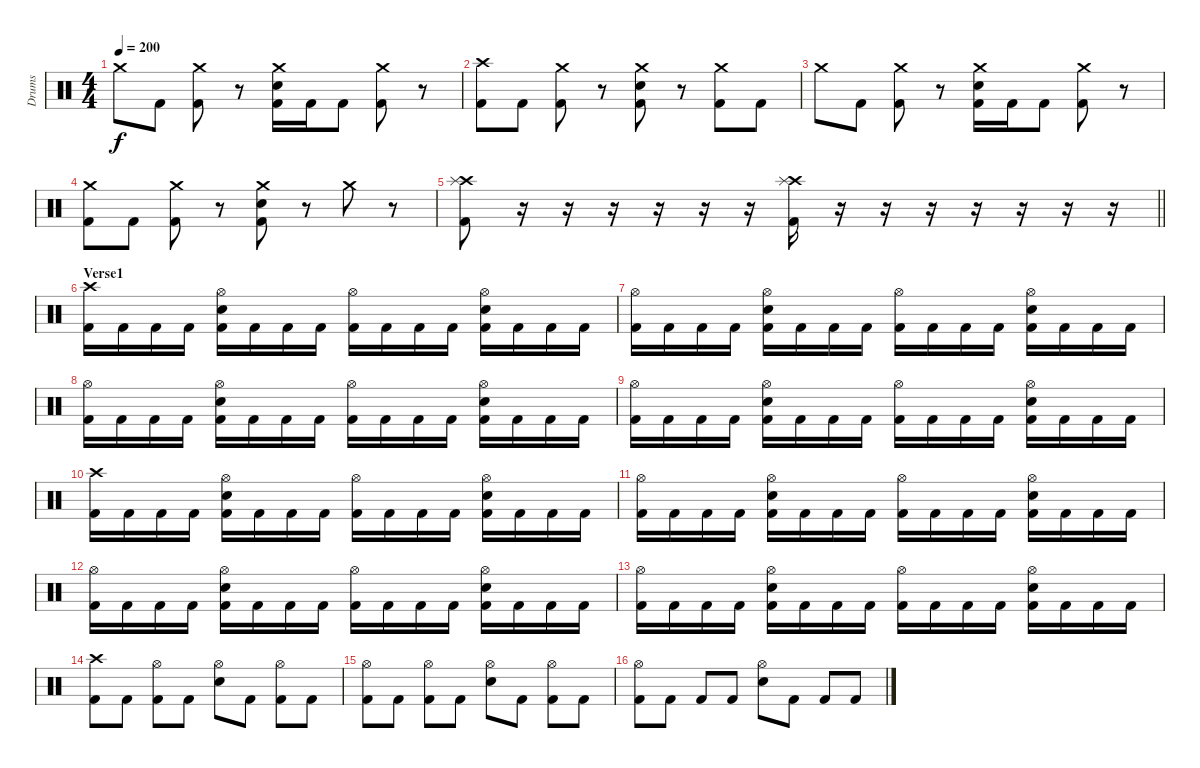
\track ("Drums" "Drums") {instrument percussion}
\staff {score}
\articulation defaults
\ts (4 4)
\tempo 200
\clef neutral
\ks c "Crash medium (hit)".8{dy f} "Kick (hit) 2".8
("Crash medium (hit)" "Kick (hit) 2").8 r.8 ("Crash medium (hit)" "Electric Snare (hit)" "Kick (hit) 2").16 "Kick (hit) 2".16 "Kick (hit) 2".8 ("Crash medium (hit)" "Kick (hit) 2").8 r.8 |
("Crash high (hit)" "Kick (hit) 2").8 "Kick (hit) 2".8 ("Crash medium (hit)" "Kick (hit) 2").8 r.8 ("Crash medium (hit)" "Electric Snare (hit)" "Kick (hit) 2").8 r.8 ("Crash medium (hit)" "Kick (hit) 2").8 "Kick (hit) 2".8 |
"Crash medium (hit)".8 "Kick (hit) 2".8 ("Crash medium (hit)" "Kick (hit) 2").8 r.8 ("Crash medium (hit)" "Electric Snare (hit)" "Kick (hit) 2").16 "Kick (hit) 2".16 "Kick (hit) 2".8 ("Crash medium (hit)" "Kick (hit) 2").8 r.8 |
("Crash medium (hit)" "Kick (hit) 2").8 "Kick (hit) 2".8 ("Crash medium (hit)" "Kick (hit) 2").8 r.8 ("Crash medium (hit)" "Electric Snare (hit)" "Kick (hit) 2").8 r.8 "Crash medium (hit)".8 r.8 |
\barLineRight lightlight
("Crash high (hit)" "Splash (hit)" "Kick (hit) 2").8 r.16 r.16 r.16 r.16 r.16 r.16 ("Crash high (hit)" "Splash (hit)" "Kick (hit) 2").16 r.16 r.16 r.16 r.16 r.16 r.16 r.16 |
\section ("" "Verse1")
("Crash high (hit)" "Kick (hit) 2").16 "Kick (hit) 2".16 "Kick (hit) 2".16 "Kick (hit) 2".16 ("Hi-Hat (open)" "Electric Snare (hit)" "Kick (hit) 2").16 "Kick (hit) 2".16 "Kick (hit) 2".16 "Kick (hit) 2".16 ("Hi-Hat (open)" "Kick (hit) 2").16 "Kick (hit) 2".16 "Kick (hit) 2".16 "Kick (hit) 2".16 ("Hi-Hat (open)" "Electric Snare (hit)" "Kick (hit) 2").16 "Kick (hit) 2".16 "Kick (hit) 2".16 "Kick (hit) 2".16 |
("Hi-Hat (open)" "Kick (hit) 2").16 "Kick (hit) 2".16 "Kick (hit) 2".16 "Kick (hit) 2".16 ("Hi-Hat (open)" "Electric Snare (hit)" "Kick (hit) 2").16 "Kick (hit) 2".16 "Kick (hit) 2".16 "Kick (hit) 2".16 ("Hi-Hat (open)" "Kick (hit) 2").16 "Kick (hit) 2".16 "Kick (hit) 2".16 "Kick (hit) 2".16 ("Hi-Hat (open)" "Electric Snare (hit)" "Kick (hit) 2").16 "Kick (hit) 2".16 "Kick (hit) 2".16 "Kick (hit) 2".16 |
("Hi-Hat (open)" "Kick (hit) 2").16 "Kick (hit) 2".16 "Kick (hit) 2".16 "Kick (hit) 2".16 ("Hi-Hat (open)" "Electric Snare (hit)" "Kick (hit) 2").16 "Kick (hit) 2".16 "Kick (hit) 2".16 "Kick (hit) 2".16 ("Hi-Hat (open)" "Kick (hit) 2").16 "Kick (hit) 2".16 "Kick (hit) 2".16 "Kick (hit) 2".16 ("Hi-Hat (open)" "Electric Snare (hit)" "Kick (hit) 2").16 "Kick (hit) 2".16 "Kick (hit) 2".16 "Kick (hit) 2".16 |
("Hi-Hat (open)" "Kick (hit) 2").16 "Kick (hit) 2".16 "Kick (hit) 2".16 "Kick (hit) 2".16 ("Hi-Hat (open)" "Electric Snare (hit)" "Kick (hit) 2").16 "Kick (hit) 2".16 "Kick (hit) 2".16 "Kick (hit) 2".16 ("Hi-Hat (open)" "Kick (hit) 2").16 "Kick (hit) 2".16 "Kick (hit) 2".16 "Kick (hit) 2".16 ("Hi-Hat (open)" "Electric Snare (hit)" "Kick (hit) 2").16 "Kick (hit) 2".16 "Kick (hit) 2".16 "Kick (hit) 2".16 |
("Crash high (hit)" "Kick (hit) 2").16 "Kick (hit) 2".16 "Kick (hit) 2".16 "Kick (hit) 2".16 ("Hi-Hat (open)" "Electric Snare (hit)" "Kick (hit) 2").16 "Kick (hit) 2".16 "Kick (hit) 2".16 "Kick (hit) 2".16 ("Hi-Hat (open)" "Kick (hit) 2").16 "Kick (hit) 2".16 "Kick (hit) 2".16 "Kick (hit) 2".16 ("Hi-Hat (open)" "Electric Snare (hit)" "Kick (hit) 2").16 "Kick (hit) 2".16 "Kick (hit) 2".16 "Kick (hit) 2".16 |
("Hi-Hat (open)" "Kick (hit) 2").16 "Kick (hit) 2".16 "Kick (hit) 2".16 "Kick (hit) 2".16 ("Hi-Hat (open)" "Electric Snare (hit)" "Kick (hit) 2").16 "Kick (hit) 2".16 "Kick (hit) 2".16 "Kick (hit) 2".16 ("Hi-Hat (open)" "Kick (hit) 2").16 "Kick (hit) 2".16 "Kick (hit) 2".16 "Kick (hit) 2".16 ("Hi-Hat (open)" "Electric Snare (hit)" "Kick (hit) 2").16 "Kick (hit) 2".16 "Kick (hit) 2".16 "Kick (hit) 2".16 |
("Hi-Hat (open)" "Kick (hit) 2").16 "Kick (hit) 2".16 "Kick (hit) 2".16 "Kick (hit) 2".16 ("Hi-Hat (open)" "Electric Snare (hit)" "Kick (hit) 2").16 "Kick (hit) 2".16 "Kick (hit) 2".16 "Kick (hit) 2".16 ("Hi-Hat (open)" "Kick (hit) 2").16 "Kick (hit) 2".16 "Kick (hit) 2".16 "Kick (hit) 2".16 ("Hi-Hat (open)" "Electric Snare (hit)" "Kick (hit) 2").16 "Kick (hit) 2".16 "Kick (hit) 2".16 "Kick (hit) 2".16 |
("Hi-Hat (open)" "Kick (hit) 2").16 "Kick (hit) 2".16 "Kick (hit) 2".16 "Kick (hit) 2".16 ("Hi-Hat (open)" "Electric Snare (hit)" "Kick (hit) 2").16 "Kick (hit) 2".16 "Kick (hit) 2".16 "Kick (hit) 2".16 ("Hi-Hat (open)" "Kick (hit) 2").16 "Kick (hit) 2".16 "Kick (hit) 2".16 "Kick (hit) 2".16 ("Hi-Hat (open)" "Electric Snare (hit)" "Kick (hit) 2").16 "Kick (hit) 2".16 "Kick (hit) 2".16 "Kick (hit) 2".16 |
("Crash high (hit)" "Kick (hit) 2").8 "Kick (hit) 2".8 ("Hi-Hat (open)" "Kick (hit) 2").8 "Kick (hit) 2".8 ("Hi-Hat (open)" "Electric Snare (hit)").8 "Kick (hit) 2".8 ("Hi-Hat (open)" "Kick (hit) 2").8 "Kick (hit) 2".8 |
("Hi-Hat (open)" "Kick (hit) 2").8 "Kick (hit) 2".8 ("Hi-Hat (open)" "Kick (hit) 2").8 "Kick (hit) 2".8 ("Hi-Hat (open)" "Electric Snare (hit)").8 "Kick (hit) 2".8 ("Hi-Hat (open)" "Kick (hit) 2").8 "Kick (hit) 2".8 |
("Hi-Hat (open)" "Kick (hit) 2").8 "Kick (hit) 2".8 "Kick (hit) 2".8 "Kick (hit) 2".8 ("Hi-Hat (open)" "Electric Snare (hit)").8 "Kick (hit) 2".8 "Kick (hit) 2".8 "Kick (hit) 2".8
